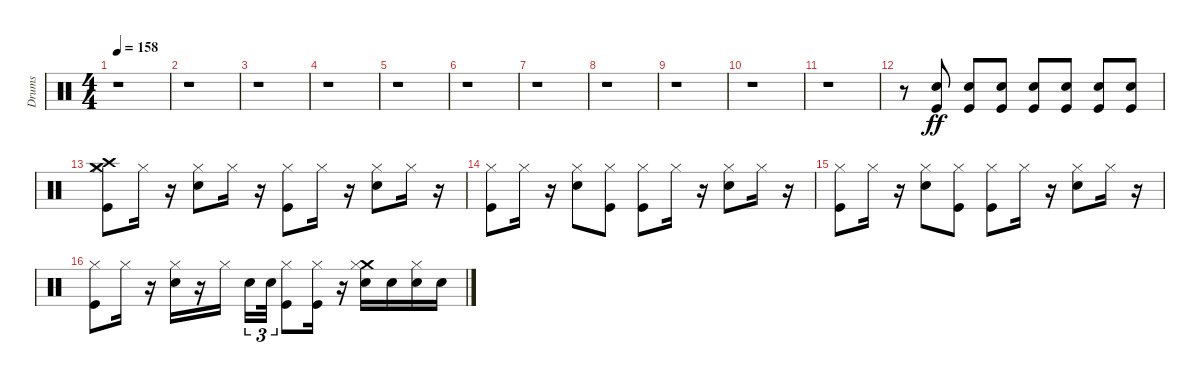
\track ("Drums" "Drums") {instrument percussion}
\staff {score}
\articulation defaults
\ts (4 4)
\tempo 158
\clef neutral
\ks c
r.1{dy ff} |
r.1 |
r.1 |
r.1 |
r.1 |
r.1 |
r.1 |
r.1 |
r.1 |
r.1 |
r.1 |
r.8 ("Kick (hit)" "Snare (hit) 2").8 ("Kick (hit)" "Snare (hit) 2").8 ("Kick (hit)" "Snare (hit) 2").8 ("Kick (hit)" "Snare (hit) 2").8 ("Kick (hit)" "Snare (hit) 2").8 ("Kick (hit)" "Snare (hit) 2").8 ("Kick (hit)" "Snare (hit) 2").8 |
("Hi-Hat (closed)" "Kick (hit)" "Crash medium (hit)" "Crash high (hit)").8 "Hi-Hat (closed)".16 r.16 ("Hi-Hat (closed)" "Snare (hit) 2").8 "Hi-Hat (closed)".16 r.16 ("Hi-Hat (closed)" "Kick (hit)").8 "Hi-Hat (closed)".16 r.16 ("Hi-Hat (closed)" "Snare (hit) 2").8 "Hi-Hat (closed)".16 r.16 |
("Hi-Hat (closed)" "Kick (hit)").8 "Hi-Hat (closed)".16 r.16 ("Hi-Hat (closed)" "Snare (hit) 2").8 ("Hi-Hat (closed)" "Kick (hit)").8 ("Hi-Hat (closed)" "Kick (hit)").8 "Hi-Hat (closed)".16 r.16 ("Hi-Hat (closed)" "Snare (hit) 2").8 "Hi-Hat (closed)".16 r.16 |
("Hi-Hat (closed)" "Kick (hit)").8 "Hi-Hat (closed)".16 r.16 ("Hi-Hat (closed)" "Snare (hit) 2").8 ("Kick (hit)" "Hi-Hat (closed)").8 ("Kick (hit)" "Hi-Hat (closed)").8 "Hi-Hat (closed)".16 r.16 ("Hi-Hat (closed)" "Snare (hit) 2").8 "Hi-Hat (closed)".16 r.16 |
("Hi-Hat (closed)" "Kick (hit)").8 "Hi-Hat (closed)".16 r.16 ("Hi-Hat (closed)" "Snare (hit) 2").16 r.16 "Hi-Hat (closed)".16 "Snare (hit) 2".16{tu (3 2)} "Snare (hit) 2".32{tu (3 2)} ("Hi-Hat (closed)" "Kick (hit)").8 ("Hi-Hat (closed)" "Kick (hit)").16 r.16 ("Crash medium (hit)" "Snare (hit) 2" "Hi-Hat (closed)").16 "Snare (hit) 2".16 ("Snare (hit) 2" "Hi-Hat (closed)").16 "Snare (hit) 2".16
